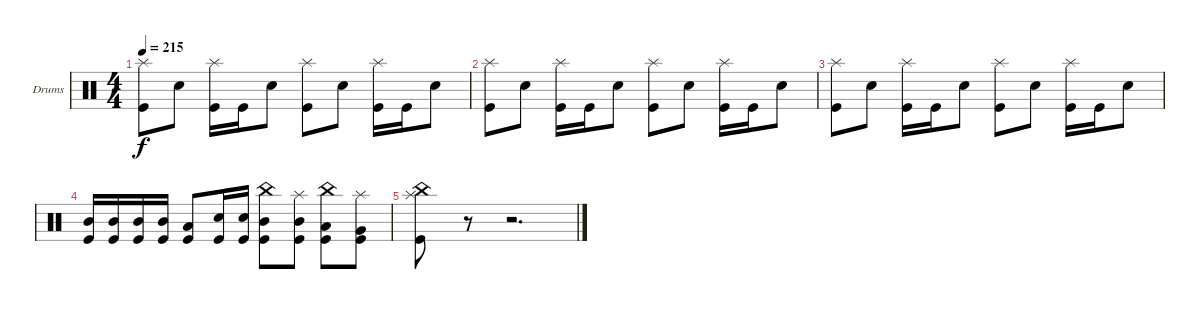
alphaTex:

\defaultSystemsLayout 4
\bracketExtendMode groupsimilarinstruments
\firstSystemTrackNameOrientation horizontal
\otherSystemsTrackNameOrientation horizontal
\track ("Drumkit" "Drums") {instrument percussion}
\staff {score}
\articulation defaults
\ts (4 4)
\tempo 215
\clef neutral
\ks c
("Splash (hit)" "Kick (hit)").8{dy f} "Snare (hit) 2".8 ("Splash (hit)" "Kick (hit)").16 "Kick (hit)".16 "Snare (hit) 2".8 ("Splash (hit)" "Kick (hit)").8 "Snare (hit) 2".8 ("Splash (hit)" "Kick (hit)").16 "Kick (hit)".16 "Snare (hit) 2".8 |
("Splash (hit)" "Kick (hit)").8 "Snare (hit) 2".8 ("Splash (hit)" "Kick (hit)").16 "Kick (hit)".16 "Snare (hit) 2".8 ("Splash (hit)" "Kick (hit)").8 "Snare (hit) 2".8 ("Splash (hit)" "Kick (hit)").16 "Kick (hit)".16 "Snare (hit) 2".8 |
("Splash (hit)" "Kick (hit)").8 "Snare (hit) 2".8 ("Splash (hit)" "Kick (hit)").16 "Kick (hit)".16 "Snare (hit) 2".8 ("Splash (hit)" "Kick (hit)").8 "Snare (hit) 2".8 ("Splash (hit)" "Kick (hit)").16 "Kick (hit)".16 "Snare (hit) 2".8 |
("Kick (hit)" "Mid Tom (hit)").16 ("Kick (hit)" "Mid Tom (hit)").16 ("Kick (hit)" "Mid Tom (hit)").16 ("Kick (hit)" "Mid Tom (hit)").16 ("Kick (hit)" "Low Tom (hit)").8 ("Kick (hit)" "Snare (hit) 2").16 ("Kick (hit)" "Snare (hit) 2").16 ("Kick (hit)" "Mid Tom (hit)" "China (hit)").8 ("Kick (hit)" "Mid Tom (hit)" "Splash (hit)").8 ("Kick (hit)" "Low Tom (hit)" "China (hit)").8 ("Kick (hit)" "Very Low Tom (hit)" "Splash (hit)").8 |
("Kick (hit)" "Splash (hit)" "China (hit)").8 r.8 r.2{d}
